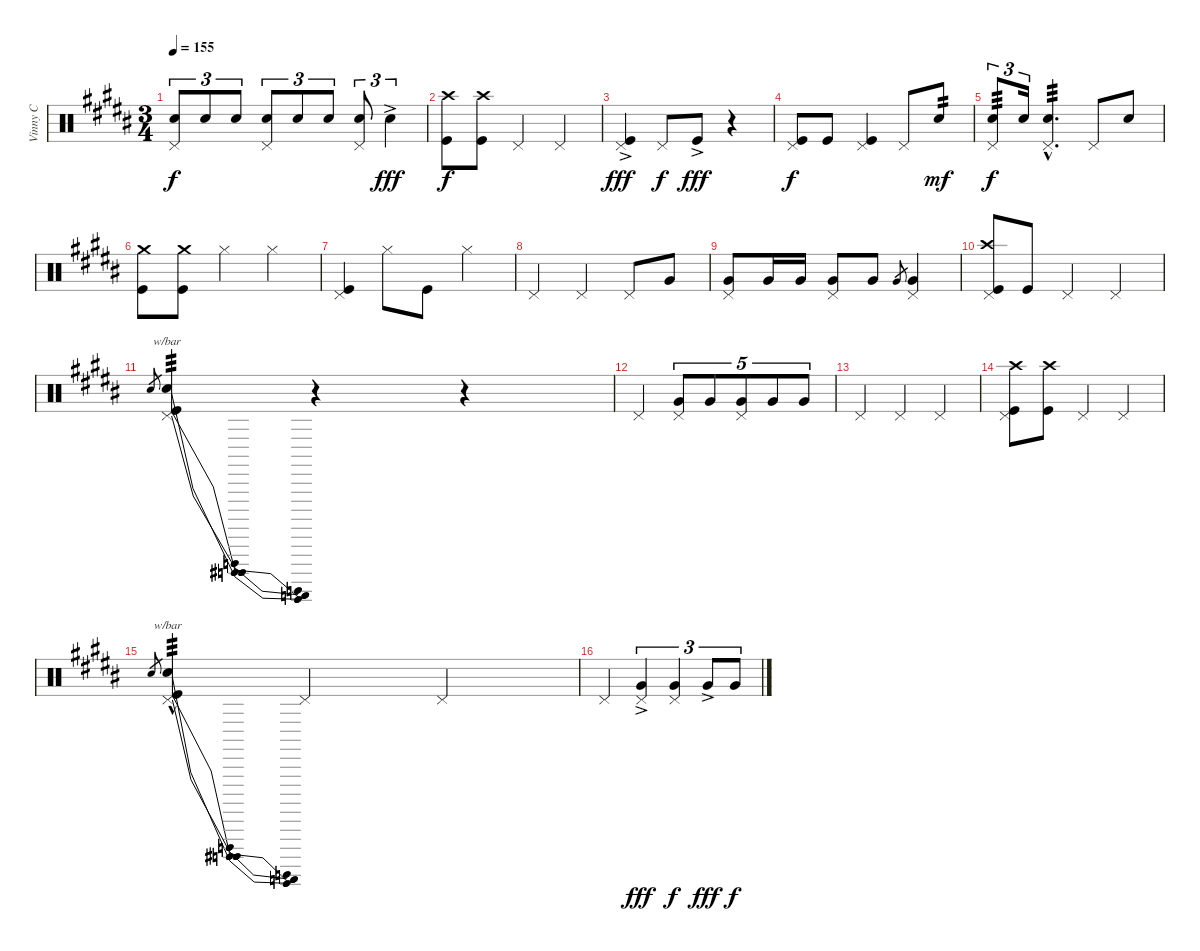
\track ("Vinny C" "Vinny C") {instrument percussion}
\staff {score}
\articulation defaults
\ts (3 4)
\tempo 155
\clef neutral
\ks b
("Pedal Hi-Hat (hit)" "Electric Snare (hit)").8{tu (3 2) dy f} "Electric Snare (hit)".8{tu (3 2)} "Electric Snare (hit)".8{tu (3 2)} ("Pedal Hi-Hat (hit)" "Electric Snare (hit)").8{tu (3 2)} "Electric Snare (hit)".8{tu (3 2)} "Electric Snare (hit)".8{tu (3 2)} ("Pedal Hi-Hat (hit)" "Electric Snare (hit)").8{tu (3 2)} "Electric Snare (hit)"{ac}.4{tu (3 2) dy fff} |
("Crash high (hit)" "Kick (hit)").8{dy f} ("Crash high (hit)" "Kick (hit)").8 "Pedal Hi-Hat (hit)".4 "Pedal Hi-Hat (hit)".4 |
("Pedal Hi-Hat (hit)" "Kick (hit)"{ac}).4{dy fff} "Pedal Hi-Hat (hit)".8{dy f} "Kick (hit)"{ac}.8{dy fff} r.4 |
("Pedal Hi-Hat (hit)" "Kick (hit)").8{dy f} "Kick (hit)".8 ("Pedal Hi-Hat (hit)" "Kick (hit)").4 "Pedal Hi-Hat (hit)".8 "Electric Snare (hit)".8{tp 2 dy mf} |
("Pedal Hi-Hat (hit)" "Electric Snare (hit)").8{tu (3 2) tp 3 dy f} "Electric Snare (hit)".16{tu (3 2)} ("Pedal Hi-Hat (hit)"{hac} "Electric Snare (hit)"{hac}).4{d tp 3} "Pedal Hi-Hat (hit)".8 "Electric Snare (hit)".8 |
("Crash medium (hit)" "Kick (hit)").8 ("Crash medium (hit)" "Kick (hit)").8 "Hi-Hat (closed)".4 "Hi-Hat (closed)".4 |
("Pedal Hi-Hat (hit)" "Kick (hit)").4 "Hi-Hat (closed)".8 "Kick (hit)".8 "Hi-Hat (closed)".4 |
"Pedal Hi-Hat (hit)".4 "Pedal Hi-Hat (hit)".4 "Pedal Hi-Hat (hit)".8 "Very Low Tom (hit)".8 |
("Pedal Hi-Hat (hit)" "Very Low Tom (hit)").8 "Very Low Tom (hit)".16 "Very Low Tom (hit)".16 ("Pedal Hi-Hat (hit)" "Very Low Tom (hit)").8 "Very Low Tom (hit)".8 "Very Low Tom (hit)".8{gr} ("Pedal Hi-Hat (hit)" "Very Low Tom (hit)").4 |
("Pedal Hi-Hat (hit)" "Crash high (hit)" "Kick (hit)").8 "Kick (hit)".8 "Pedal Hi-Hat (hit)".4 "Pedal Hi-Hat (hit)".4 |
"Electric Snare (hit)".8{gr} ("Pedal Hi-Hat (hit)" "Electric Snare (hit)" "Kick (hit)").4{tbe (dip default 0 -12 30 4 60 -16) tp 3} r.4 r.4 |
"Pedal Hi-Hat (hit)".4 ("Pedal Hi-Hat (hit)" "Very Low Tom (hit)").8{tu (5 4)} "Very Low Tom (hit)".8{tu (5 4)} ("Pedal Hi-Hat (hit)" "Very Low Tom (hit)").8{tu (5 4)} "Very Low Tom (hit)".8{tu (5 4)} "Very Low Tom (hit)".8{tu (5 4)} |
"Pedal Hi-Hat (hit)".4 "Pedal Hi-Hat (hit)".4 "Pedal Hi-Hat (hit)".4 |
("Pedal Hi-Hat (hit)" "Crash high (hit)" "Kick (hit)").8 ("Crash high (hit)" "Kick (hit)").8 "Pedal Hi-Hat (hit)".4 "Pedal Hi-Hat (hit)".4 |
"Electric Snare (hit)".8{gr} ("Pedal Hi-Hat (hit)" "Electric Snare (hit)"{hac} "Kick (hit)").4{tbe (dip default 0 -12 30 4 60 -16) tp 3} "Pedal Hi-Hat (hit)".4 "Pedal Hi-Hat (hit)".4 |
"Pedal Hi-Hat (hit)".4 ("Pedal Hi-Hat (hit)" "Very Low Tom (hit)"{ac}).4{tu (3 2) dy fff} ("Pedal Hi-Hat (hit)" "Very Low Tom (hit)").4{tu (3 2) dy f} "Very Low Tom (hit)"{ac}.8{tu (3 2) dy fff} "Very Low Tom (hit)".8{tu (3 2) dy f}
